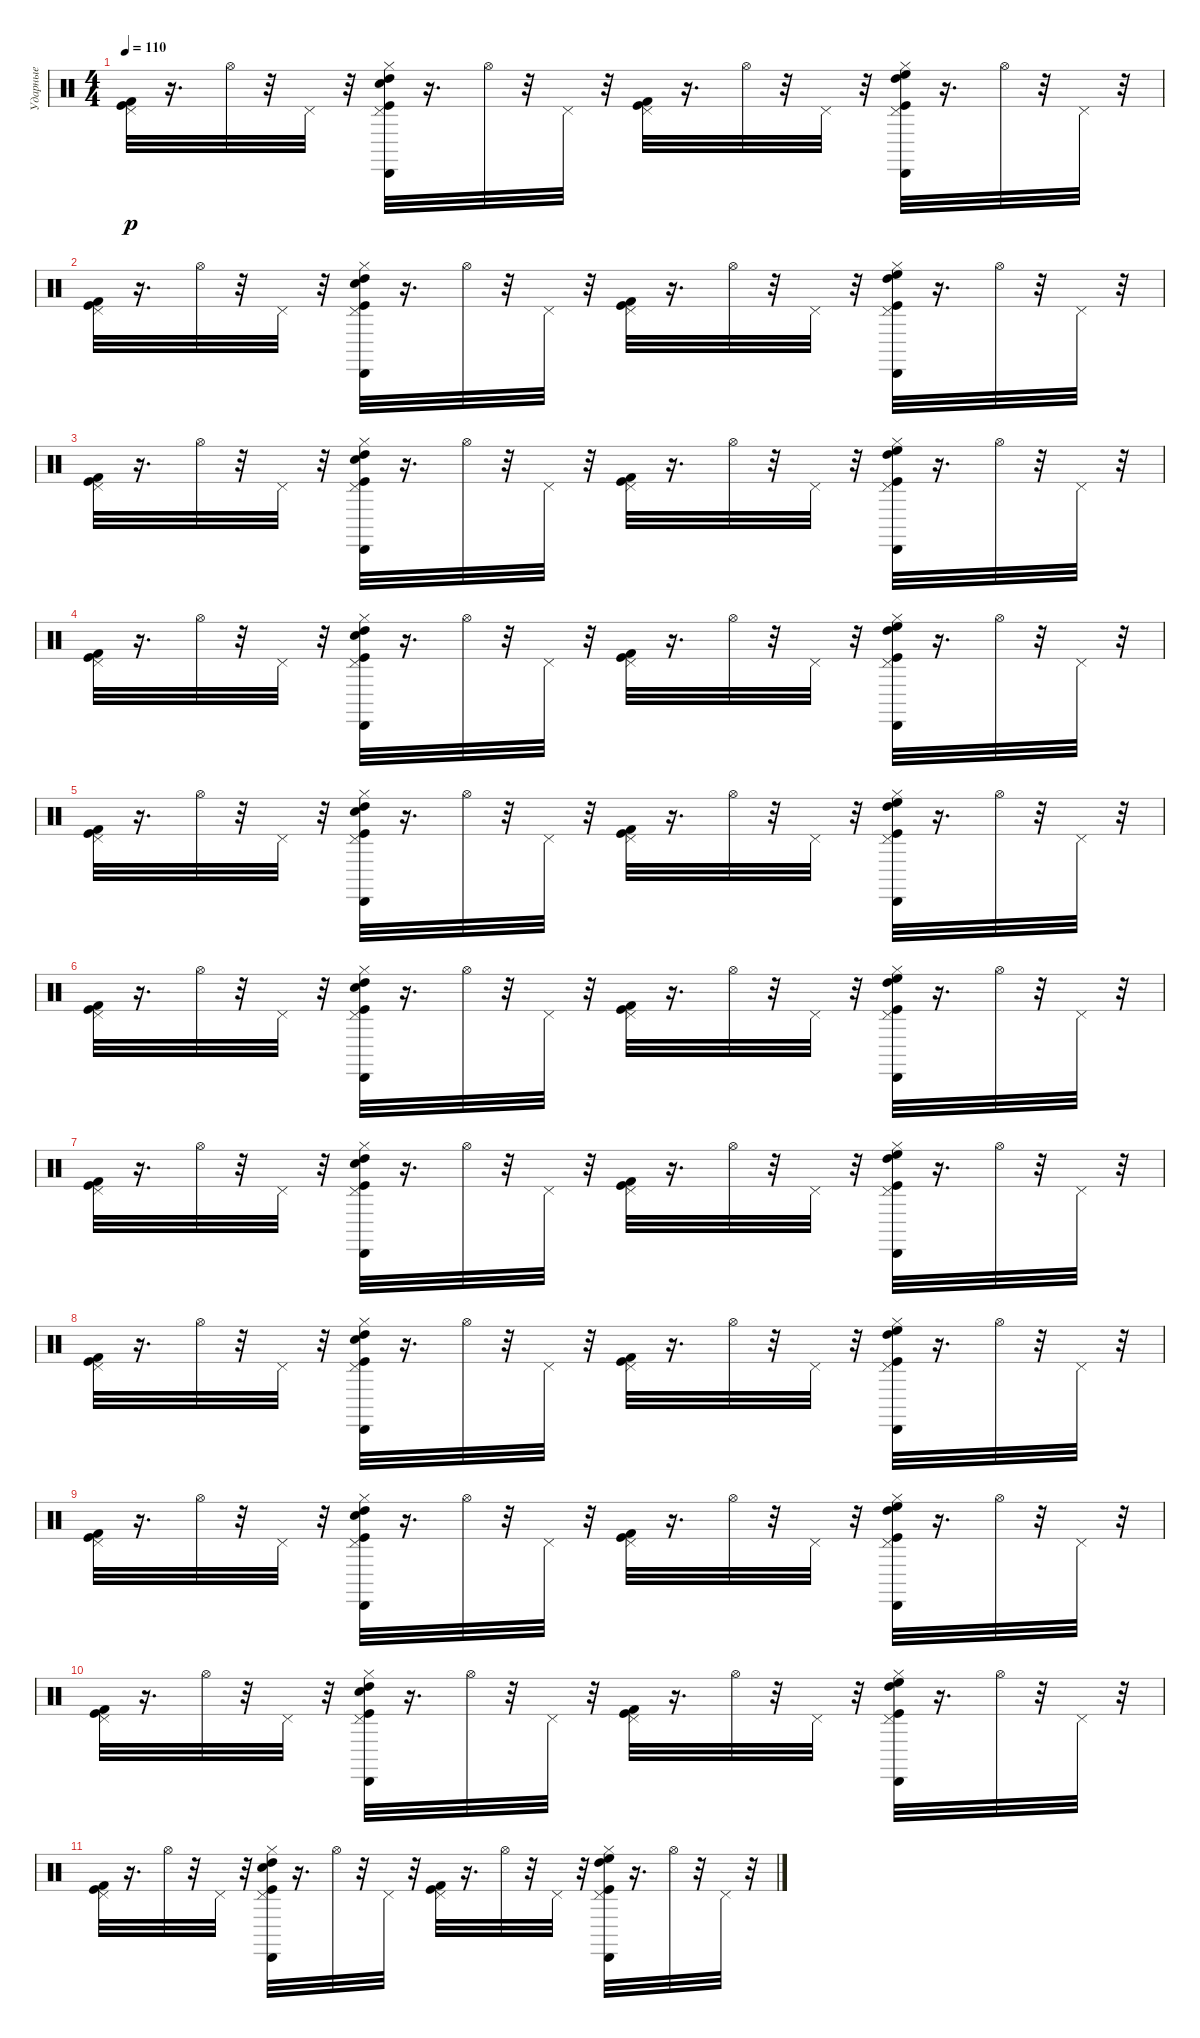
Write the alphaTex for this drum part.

\track ("Ударные" "Ударные") {instrument percussion}
\staff
\articulation defaults
\ts (4 4)
\tempo 110
\clef neutral
\ks c
("Pedal Hi-Hat (hit)" "Kick (hit) 2" "Kick (hit)").32{dy p} r.16{d} "Hi-Hat (open)".32 r.32 "Pedal Hi-Hat (hit)".32 r.32 ("Kick (hit)" "High Tom (hit)" "Cabasa (hit)" "Hi-Hat (closed)" "Pedal Hi-Hat (hit)" "Electric Snare (hit)").32 r.16{d} "Hi-Hat (open)".32 r.32 "Pedal Hi-Hat (hit)".32 r.32 ("Pedal Hi-Hat (hit)" "Kick (hit) 2" "Kick (hit)").32 r.16{d} "Hi-Hat (open)".32 r.32 "Pedal Hi-Hat (hit)".32 r.32 ("Kick (hit)" "High Floor Tom (hit)" "High Tom (hit)" "Cabasa (hit)" "Hi-Hat (closed)" "Pedal Hi-Hat (hit)").32 r.16{d} "Hi-Hat (open)".32 r.32 "Pedal Hi-Hat (hit)".32 r.32 |
("Pedal Hi-Hat (hit)" "Kick (hit) 2" "Kick (hit)").32 r.16{d} "Hi-Hat (open)".32 r.32 "Pedal Hi-Hat (hit)".32 r.32 ("Kick (hit)" "High Tom (hit)" "Cabasa (hit)" "Hi-Hat (closed)" "Pedal Hi-Hat (hit)" "Electric Snare (hit)").32 r.16{d} "Hi-Hat (open)".32 r.32 "Pedal Hi-Hat (hit)".32 r.32 ("Pedal Hi-Hat (hit)" "Kick (hit) 2" "Kick (hit)").32 r.16{d} "Hi-Hat (open)".32 r.32 "Pedal Hi-Hat (hit)".32 r.32 ("Kick (hit)" "High Floor Tom (hit)" "High Tom (hit)" "Cabasa (hit)" "Hi-Hat (closed)" "Pedal Hi-Hat (hit)").32 r.16{d} "Hi-Hat (open)".32 r.32 "Pedal Hi-Hat (hit)".32 r.32 |
("Pedal Hi-Hat (hit)" "Kick (hit) 2" "Kick (hit)").32 r.16{d} "Hi-Hat (open)".32 r.32 "Pedal Hi-Hat (hit)".32 r.32 ("Kick (hit)" "High Tom (hit)" "Cabasa (hit)" "Hi-Hat (closed)" "Pedal Hi-Hat (hit)" "Electric Snare (hit)").32 r.16{d} "Hi-Hat (open)".32 r.32 "Pedal Hi-Hat (hit)".32 r.32 ("Pedal Hi-Hat (hit)" "Kick (hit) 2" "Kick (hit)").32 r.16{d} "Hi-Hat (open)".32 r.32 "Pedal Hi-Hat (hit)".32 r.32 ("Kick (hit)" "High Floor Tom (hit)" "High Tom (hit)" "Cabasa (hit)" "Hi-Hat (closed)" "Pedal Hi-Hat (hit)").32 r.16{d} "Hi-Hat (open)".32 r.32 "Pedal Hi-Hat (hit)".32 r.32 |
("Pedal Hi-Hat (hit)" "Kick (hit) 2" "Kick (hit)").32 r.16{d} "Hi-Hat (open)".32 r.32 "Pedal Hi-Hat (hit)".32 r.32 ("Kick (hit)" "High Tom (hit)" "Cabasa (hit)" "Hi-Hat (closed)" "Pedal Hi-Hat (hit)" "Electric Snare (hit)").32 r.16{d} "Hi-Hat (open)".32 r.32 "Pedal Hi-Hat (hit)".32 r.32 ("Pedal Hi-Hat (hit)" "Kick (hit) 2" "Kick (hit)").32 r.16{d} "Hi-Hat (open)".32 r.32 "Pedal Hi-Hat (hit)".32 r.32 ("Kick (hit)" "High Floor Tom (hit)" "High Tom (hit)" "Cabasa (hit)" "Hi-Hat (closed)" "Pedal Hi-Hat (hit)").32 r.16{d} "Hi-Hat (open)".32 r.32 "Pedal Hi-Hat (hit)".32 r.32 |
("Pedal Hi-Hat (hit)" "Kick (hit) 2" "Kick (hit)").32 r.16{d} "Hi-Hat (open)".32 r.32 "Pedal Hi-Hat (hit)".32 r.32 ("Kick (hit)" "High Tom (hit)" "Cabasa (hit)" "Hi-Hat (closed)" "Pedal Hi-Hat (hit)" "Electric Snare (hit)").32 r.16{d} "Hi-Hat (open)".32 r.32 "Pedal Hi-Hat (hit)".32 r.32 ("Pedal Hi-Hat (hit)" "Kick (hit) 2" "Kick (hit)").32 r.16{d} "Hi-Hat (open)".32 r.32 "Pedal Hi-Hat (hit)".32 r.32 ("Kick (hit)" "High Floor Tom (hit)" "High Tom (hit)" "Cabasa (hit)" "Hi-Hat (closed)" "Pedal Hi-Hat (hit)").32 r.16{d} "Hi-Hat (open)".32 r.32 "Pedal Hi-Hat (hit)".32 r.32 |
("Pedal Hi-Hat (hit)" "Kick (hit) 2" "Kick (hit)").32 r.16{d} "Hi-Hat (open)".32 r.32 "Pedal Hi-Hat (hit)".32 r.32 ("Kick (hit)" "High Tom (hit)" "Cabasa (hit)" "Hi-Hat (closed)" "Pedal Hi-Hat (hit)" "Electric Snare (hit)").32 r.16{d} "Hi-Hat (open)".32 r.32 "Pedal Hi-Hat (hit)".32 r.32 ("Pedal Hi-Hat (hit)" "Kick (hit) 2" "Kick (hit)").32 r.16{d} "Hi-Hat (open)".32 r.32 "Pedal Hi-Hat (hit)".32 r.32 ("Kick (hit)" "High Floor Tom (hit)" "High Tom (hit)" "Cabasa (hit)" "Hi-Hat (closed)" "Pedal Hi-Hat (hit)").32 r.16{d} "Hi-Hat (open)".32 r.32 "Pedal Hi-Hat (hit)".32 r.32 |
("Pedal Hi-Hat (hit)" "Kick (hit) 2" "Kick (hit)").32 r.16{d} "Hi-Hat (open)".32 r.32 "Pedal Hi-Hat (hit)".32 r.32 ("Kick (hit)" "High Tom (hit)" "Cabasa (hit)" "Hi-Hat (closed)" "Pedal Hi-Hat (hit)" "Electric Snare (hit)").32 r.16{d} "Hi-Hat (open)".32 r.32 "Pedal Hi-Hat (hit)".32 r.32 ("Pedal Hi-Hat (hit)" "Kick (hit) 2" "Kick (hit)").32 r.16{d} "Hi-Hat (open)".32 r.32 "Pedal Hi-Hat (hit)".32 r.32 ("Kick (hit)" "High Floor Tom (hit)" "High Tom (hit)" "Cabasa (hit)" "Hi-Hat (closed)" "Pedal Hi-Hat (hit)").32 r.16{d} "Hi-Hat (open)".32 r.32 "Pedal Hi-Hat (hit)".32 r.32 |
("Pedal Hi-Hat (hit)" "Kick (hit) 2" "Kick (hit)").32 r.16{d} "Hi-Hat (open)".32 r.32 "Pedal Hi-Hat (hit)".32 r.32 ("Kick (hit)" "High Tom (hit)" "Cabasa (hit)" "Hi-Hat (closed)" "Pedal Hi-Hat (hit)" "Electric Snare (hit)").32 r.16{d} "Hi-Hat (open)".32 r.32 "Pedal Hi-Hat (hit)".32 r.32 ("Pedal Hi-Hat (hit)" "Kick (hit) 2" "Kick (hit)").32 r.16{d} "Hi-Hat (open)".32 r.32 "Pedal Hi-Hat (hit)".32 r.32 ("Kick (hit)" "High Floor Tom (hit)" "High Tom (hit)" "Cabasa (hit)" "Hi-Hat (closed)" "Pedal Hi-Hat (hit)").32 r.16{d} "Hi-Hat (open)".32 r.32 "Pedal Hi-Hat (hit)".32 r.32 |
("Pedal Hi-Hat (hit)" "Kick (hit) 2" "Kick (hit)").32 r.16{d} "Hi-Hat (open)".32 r.32 "Pedal Hi-Hat (hit)".32 r.32 ("Kick (hit)" "High Tom (hit)" "Cabasa (hit)" "Hi-Hat (closed)" "Pedal Hi-Hat (hit)" "Electric Snare (hit)").32 r.16{d} "Hi-Hat (open)".32 r.32 "Pedal Hi-Hat (hit)".32 r.32 ("Pedal Hi-Hat (hit)" "Kick (hit) 2" "Kick (hit)").32 r.16{d} "Hi-Hat (open)".32 r.32 "Pedal Hi-Hat (hit)".32 r.32 ("Kick (hit)" "High Floor Tom (hit)" "High Tom (hit)" "Cabasa (hit)" "Hi-Hat (closed)" "Pedal Hi-Hat (hit)").32 r.16{d} "Hi-Hat (open)".32 r.32 "Pedal Hi-Hat (hit)".32 r.32 |
("Pedal Hi-Hat (hit)" "Kick (hit) 2" "Kick (hit)").32 r.16{d} "Hi-Hat (open)".32 r.32 "Pedal Hi-Hat (hit)".32 r.32 ("Kick (hit)" "High Tom (hit)" "Cabasa (hit)" "Hi-Hat (closed)" "Pedal Hi-Hat (hit)" "Electric Snare (hit)").32 r.16{d} "Hi-Hat (open)".32 r.32 "Pedal Hi-Hat (hit)".32 r.32 ("Pedal Hi-Hat (hit)" "Kick (hit) 2" "Kick (hit)").32 r.16{d} "Hi-Hat (open)".32 r.32 "Pedal Hi-Hat (hit)".32 r.32 ("Kick (hit)" "High Floor Tom (hit)" "High Tom (hit)" "Cabasa (hit)" "Hi-Hat (closed)" "Pedal Hi-Hat (hit)").32 r.16{d} "Hi-Hat (open)".32 r.32 "Pedal Hi-Hat (hit)".32 r.32 |
("Pedal Hi-Hat (hit)" "Kick (hit) 2" "Kick (hit)").32 r.16{d} "Hi-Hat (open)".32 r.32 "Pedal Hi-Hat (hit)".32 r.32 ("Kick (hit)" "High Tom (hit)" "Cabasa (hit)" "Hi-Hat (closed)" "Pedal Hi-Hat (hit)" "Electric Snare (hit)").32 r.16{d} "Hi-Hat (open)".32 r.32 "Pedal Hi-Hat (hit)".32 r.32 ("Pedal Hi-Hat (hit)" "Kick (hit) 2" "Kick (hit)").32 r.16{d} "Hi-Hat (open)".32 r.32 "Pedal Hi-Hat (hit)".32 r.32 ("Kick (hit)" "High Floor Tom (hit)" "High Tom (hit)" "Cabasa (hit)" "Hi-Hat (closed)" "Pedal Hi-Hat (hit)").32 r.16{d} "Hi-Hat (open)".32 r.32 "Pedal Hi-Hat (hit)".32 r.32
